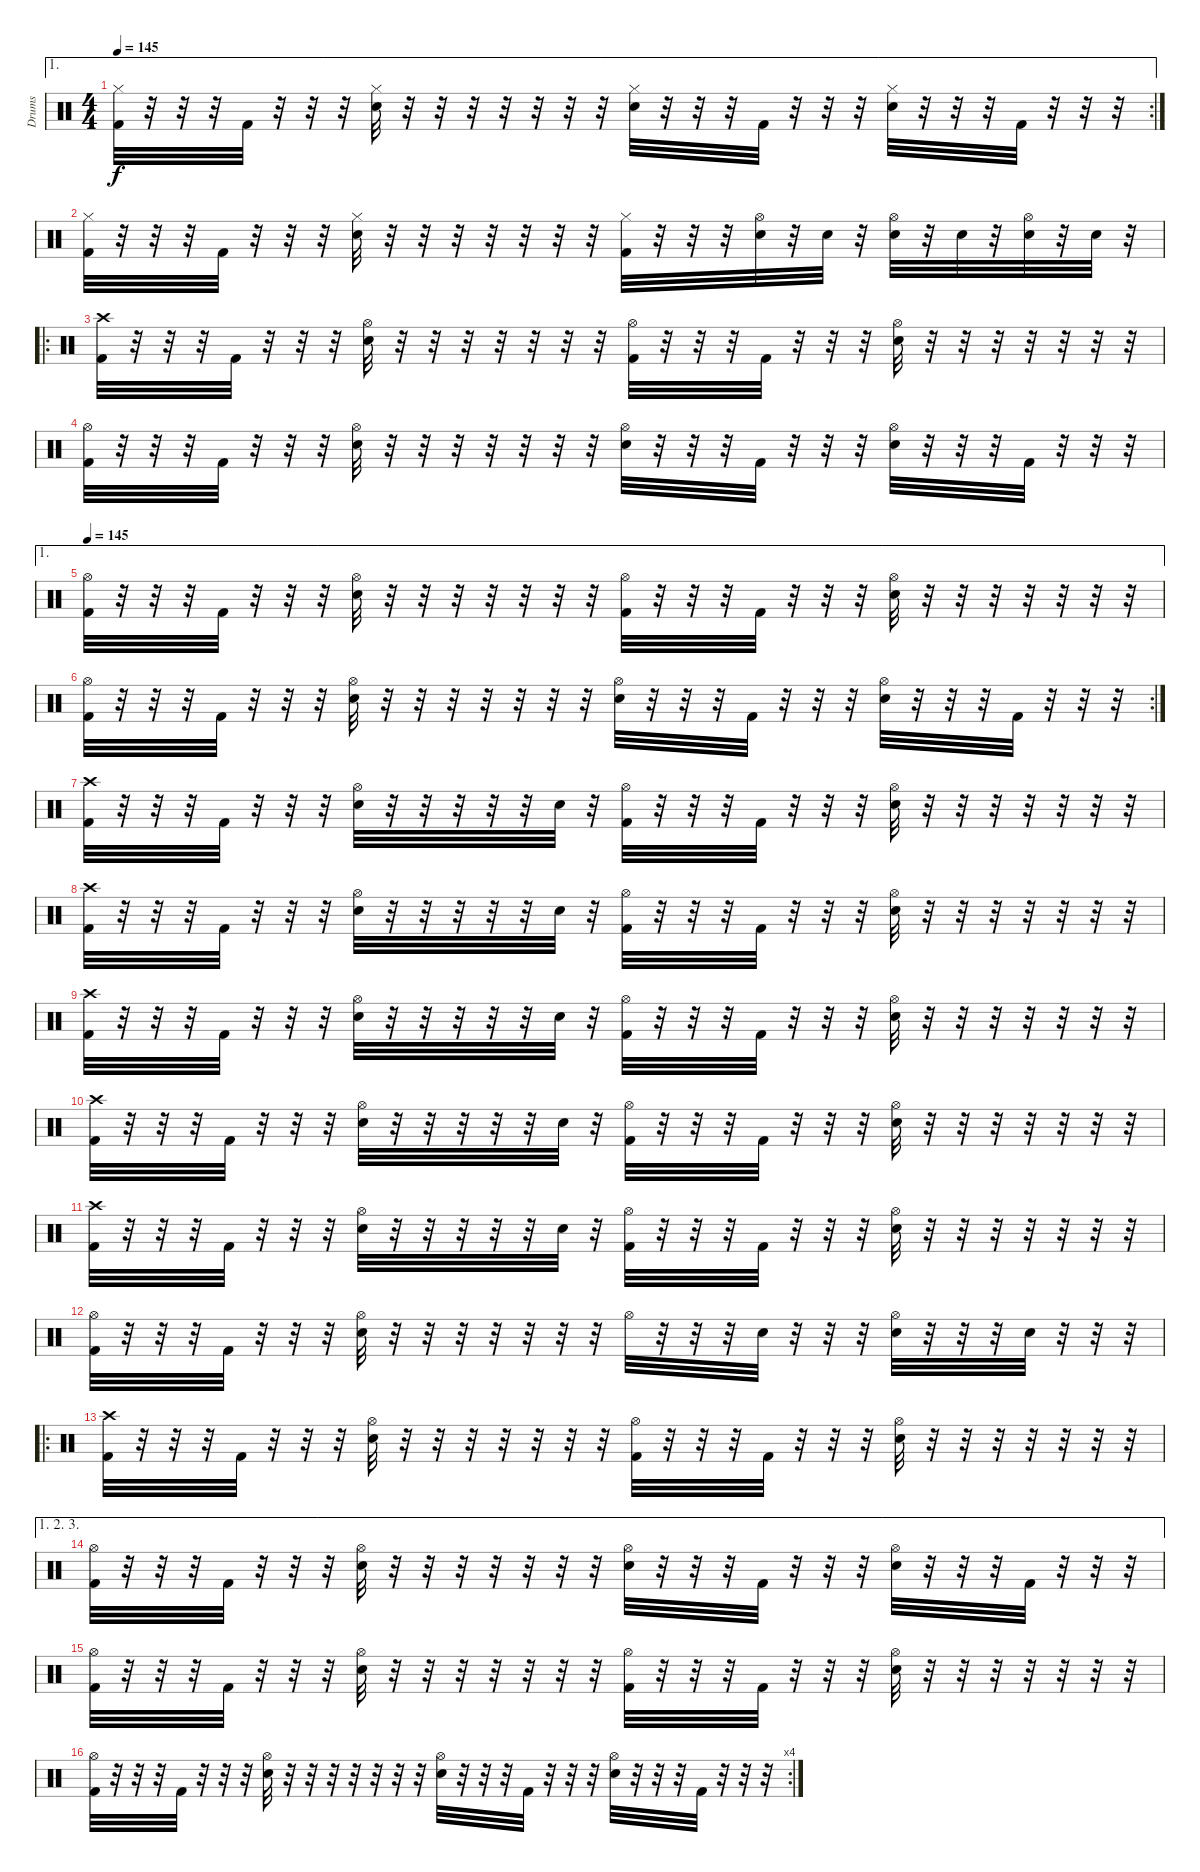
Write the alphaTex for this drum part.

\track ("Drums" "Drums") {instrument percussion}
\staff {score}
\articulation defaults
\ae 1
\rc 2
\ts (4 4)
\tempo 145
\clef neutral
\ks c
("Hi-Hat (closed)" "Kick (hit) 2").32{dy f} r.32 r.32 r.32 "Kick (hit) 2".32 r.32 r.32 r.32 ("Hi-Hat (closed)" "Snare (hit) 2").32 r.32 r.32 r.32 r.32 r.32 r.32 r.32 ("Hi-Hat (closed)" "Snare (hit) 2").32 r.32 r.32 r.32 "Kick (hit) 2".32 r.32 r.32 r.32 ("Hi-Hat (closed)" "Snare (hit) 2").32 r.32 r.32 r.32 "Kick (hit) 2".32 r.32 r.32 r.32 |
("Hi-Hat (closed)" "Kick (hit) 2").32 r.32 r.32 r.32 "Kick (hit) 2".32 r.32 r.32 r.32 ("Hi-Hat (closed)" "Snare (hit) 2").32 r.32 r.32 r.32 r.32 r.32 r.32 r.32 ("Hi-Hat (closed)" "Kick (hit) 2").32 r.32 r.32 r.32 ("Hi-Hat (open)" "Snare (hit) 2").32 r.32 "Snare (hit) 2".32 r.32 ("Hi-Hat (open)" "Snare (hit) 2").32 r.32 "Snare (hit) 2".32 r.32 ("Hi-Hat (open)" "Snare (hit) 2").32 r.32 "Snare (hit) 2".32 r.32 |
\ro
("Crash high (hit)" "Kick (hit) 2").32 r.32 r.32 r.32 "Kick (hit) 2".32 r.32 r.32 r.32 ("Hi-Hat (open)" "Snare (hit) 2").32 r.32 r.32 r.32 r.32 r.32 r.32 r.32 ("Hi-Hat (open)" "Kick (hit) 2").32 r.32 r.32 r.32 "Kick (hit) 2".32 r.32 r.32 r.32 ("Hi-Hat (open)" "Snare (hit) 2").32 r.32 r.32 r.32 r.32 r.32 r.32 r.32 |
("Hi-Hat (open)" "Kick (hit) 2").32 r.32 r.32 r.32 "Kick (hit) 2".32 r.32 r.32 r.32 ("Hi-Hat (open)" "Snare (hit) 2").32 r.32 r.32 r.32 r.32 r.32 r.32 r.32 ("Hi-Hat (open)" "Snare (hit) 2").32 r.32 r.32 r.32 "Kick (hit) 2".32 r.32 r.32 r.32 ("Hi-Hat (open)" "Snare (hit) 2").32 r.32 r.32 r.32 "Kick (hit) 2".32 r.32 r.32 r.32 |
\ae 1
\tempo 145
("Hi-Hat (open)" "Kick (hit) 2").32 r.32 r.32 r.32 "Kick (hit) 2".32 r.32 r.32 r.32 ("Hi-Hat (open)" "Snare (hit) 2").32 r.32 r.32 r.32 r.32 r.32 r.32 r.32 ("Hi-Hat (open)" "Kick (hit) 2").32 r.32 r.32 r.32 "Kick (hit) 2".32 r.32 r.32 r.32 ("Hi-Hat (open)" "Snare (hit) 2").32 r.32 r.32 r.32 r.32 r.32 r.32 r.32 |
\rc 2
("Hi-Hat (open)" "Kick (hit) 2").32 r.32 r.32 r.32 "Kick (hit) 2".32 r.32 r.32 r.32 ("Hi-Hat (open)" "Snare (hit) 2").32 r.32 r.32 r.32 r.32 r.32 r.32 r.32 ("Hi-Hat (open)" "Snare (hit) 2").32 r.32 r.32 r.32 "Kick (hit) 2".32 r.32 r.32 r.32 ("Hi-Hat (open)" "Snare (hit) 2").32 r.32 r.32 r.32 "Kick (hit) 2".32 r.32 r.32 r.32 |
("Crash high (hit)" "Kick (hit) 2").32 r.32 r.32 r.32 "Kick (hit) 2".32 r.32 r.32 r.32 ("Hi-Hat (open)" "Snare (hit) 2").32 r.32 r.32 r.32 r.32 r.32 "Snare (hit) 2".32 r.32 ("Hi-Hat (open)" "Kick (hit) 2").32 r.32 r.32 r.32 "Kick (hit) 2".32 r.32 r.32 r.32 ("Hi-Hat (open)" "Snare (hit) 2").32 r.32 r.32 r.32 r.32 r.32 r.32 r.32 |
("Crash high (hit)" "Kick (hit) 2").32 r.32 r.32 r.32 "Kick (hit) 2".32 r.32 r.32 r.32 ("Hi-Hat (open)" "Snare (hit) 2").32 r.32 r.32 r.32 r.32 r.32 "Snare (hit) 2".32 r.32 ("Hi-Hat (open)" "Kick (hit) 2").32 r.32 r.32 r.32 "Kick (hit) 2".32 r.32 r.32 r.32 ("Hi-Hat (open)" "Snare (hit) 2").32 r.32 r.32 r.32 r.32 r.32 r.32 r.32 |
("Crash high (hit)" "Kick (hit) 2").32 r.32 r.32 r.32 "Kick (hit) 2".32 r.32 r.32 r.32 ("Hi-Hat (open)" "Snare (hit) 2").32 r.32 r.32 r.32 r.32 r.32 "Snare (hit) 2".32 r.32 ("Hi-Hat (open)" "Kick (hit) 2").32 r.32 r.32 r.32 "Kick (hit) 2".32 r.32 r.32 r.32 ("Hi-Hat (open)" "Snare (hit) 2").32 r.32 r.32 r.32 r.32 r.32 r.32 r.32 |
("Crash high (hit)" "Kick (hit) 2").32 r.32 r.32 r.32 "Kick (hit) 2".32 r.32 r.32 r.32 ("Hi-Hat (open)" "Snare (hit) 2").32 r.32 r.32 r.32 r.32 r.32 "Snare (hit) 2".32 r.32 ("Hi-Hat (open)" "Kick (hit) 2").32 r.32 r.32 r.32 "Kick (hit) 2".32 r.32 r.32 r.32 ("Hi-Hat (open)" "Snare (hit) 2").32 r.32 r.32 r.32 r.32 r.32 r.32 r.32 |
("Crash high (hit)" "Kick (hit) 2").32 r.32 r.32 r.32 "Kick (hit) 2".32 r.32 r.32 r.32 ("Hi-Hat (open)" "Snare (hit) 2").32 r.32 r.32 r.32 r.32 r.32 "Snare (hit) 2".32 r.32 ("Hi-Hat (open)" "Kick (hit) 2").32 r.32 r.32 r.32 "Kick (hit) 2".32 r.32 r.32 r.32 ("Hi-Hat (open)" "Snare (hit) 2").32 r.32 r.32 r.32 r.32 r.32 r.32 r.32 |
("Hi-Hat (open)" "Kick (hit) 2").32 r.32 r.32 r.32 "Kick (hit) 2".32 r.32 r.32 r.32 ("Hi-Hat (open)" "Snare (hit) 2").32 r.32 r.32 r.32 r.32 r.32 r.32 r.32 "Hi-Hat (open)".32 r.32 r.32 r.32 "Snare (hit) 2".32 r.32 r.32 r.32 ("Hi-Hat (open)" "Snare (hit) 2").32 r.32 r.32 r.32 "Snare (hit) 2".32 r.32 r.32 r.32 |
\ro
("Crash high (hit)" "Kick (hit) 2").32 r.32 r.32 r.32 "Kick (hit) 2".32 r.32 r.32 r.32 ("Hi-Hat (open)" "Snare (hit) 2").32 r.32 r.32 r.32 r.32 r.32 r.32 r.32 ("Hi-Hat (open)" "Kick (hit) 2").32 r.32 r.32 r.32 "Kick (hit) 2".32 r.32 r.32 r.32 ("Hi-Hat (open)" "Snare (hit) 2").32 r.32 r.32 r.32 r.32 r.32 r.32 r.32 |
\ae (1 2 3)
("Hi-Hat (open)" "Kick (hit) 2").32 r.32 r.32 r.32 "Kick (hit) 2".32 r.32 r.32 r.32 ("Hi-Hat (open)" "Snare (hit) 2").32 r.32 r.32 r.32 r.32 r.32 r.32 r.32 ("Hi-Hat (open)" "Snare (hit) 2").32 r.32 r.32 r.32 "Kick (hit) 2".32 r.32 r.32 r.32 ("Hi-Hat (open)" "Snare (hit) 2").32 r.32 r.32 r.32 "Kick (hit) 2".32 r.32 r.32 r.32 |
("Hi-Hat (open)" "Kick (hit) 2").32 r.32 r.32 r.32 "Kick (hit) 2".32 r.32 r.32 r.32 ("Hi-Hat (open)" "Snare (hit) 2").32 r.32 r.32 r.32 r.32 r.32 r.32 r.32 ("Hi-Hat (open)" "Kick (hit) 2").32 r.32 r.32 r.32 "Kick (hit) 2".32 r.32 r.32 r.32 ("Hi-Hat (open)" "Snare (hit) 2").32 r.32 r.32 r.32 r.32 r.32 r.32 r.32 |
\rc 4
("Hi-Hat (open)" "Kick (hit) 2").32 r.32 r.32 r.32 "Kick (hit) 2".32 r.32 r.32 r.32 ("Hi-Hat (open)" "Snare (hit) 2").32 r.32 r.32 r.32 r.32 r.32 r.32 r.32 ("Hi-Hat (open)" "Snare (hit) 2").32 r.32 r.32 r.32 "Kick (hit) 2".32 r.32 r.32 r.32 ("Hi-Hat (open)" "Snare (hit) 2").32 r.32 r.32 r.32 "Kick (hit) 2".32 r.32 r.32 r.32
